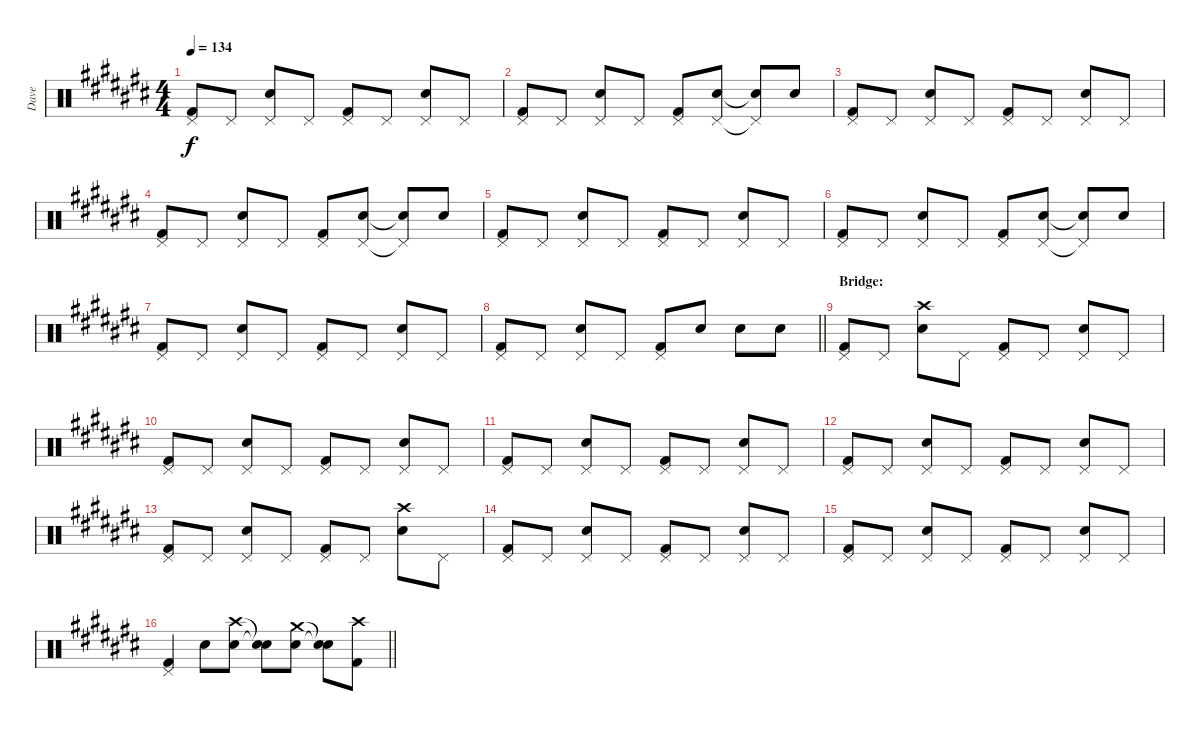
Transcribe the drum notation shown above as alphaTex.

\track ("Dave" "Dave") {instrument percussion}
\staff {score}
\articulation defaults
\ts (4 4)
\tempo 134
\clef neutral
\ks c#
("Pedal Hi-Hat (hit)" "Kick (hit) 2").8{dy f} "Pedal Hi-Hat (hit)".8 ("Pedal Hi-Hat (hit)" "Snare (hit) 2").8 "Pedal Hi-Hat (hit)".8 ("Pedal Hi-Hat (hit)" "Kick (hit) 2").8 "Pedal Hi-Hat (hit)".8 ("Pedal Hi-Hat (hit)" "Snare (hit) 2").8 "Pedal Hi-Hat (hit)".8 |
("Pedal Hi-Hat (hit)" "Kick (hit) 2").8 "Pedal Hi-Hat (hit)".8 ("Pedal Hi-Hat (hit)" "Snare (hit) 2").8 "Pedal Hi-Hat (hit)".8 ("Pedal Hi-Hat (hit)" "Kick (hit) 2").8 ("Pedal Hi-Hat (hit)" "Snare (hit) 2").8 ("Pedal Hi-Hat (hit)"{t} "Snare (hit)"{t}).8 "Snare (hit) 2".8 |
("Pedal Hi-Hat (hit)" "Kick (hit) 2").8 "Pedal Hi-Hat (hit)".8 ("Pedal Hi-Hat (hit)" "Snare (hit) 2").8 "Pedal Hi-Hat (hit)".8 ("Pedal Hi-Hat (hit)" "Kick (hit) 2").8 "Pedal Hi-Hat (hit)".8 ("Pedal Hi-Hat (hit)" "Snare (hit) 2").8 "Pedal Hi-Hat (hit)".8 |
("Pedal Hi-Hat (hit)" "Kick (hit) 2").8 "Pedal Hi-Hat (hit)".8 ("Pedal Hi-Hat (hit)" "Snare (hit) 2").8 "Pedal Hi-Hat (hit)".8 ("Pedal Hi-Hat (hit)" "Kick (hit) 2").8 ("Pedal Hi-Hat (hit)" "Snare (hit) 2").8 ("Pedal Hi-Hat (hit)"{t} "Snare (hit)"{t}).8 "Snare (hit) 2".8 |
("Pedal Hi-Hat (hit)" "Kick (hit) 2").8 "Pedal Hi-Hat (hit)".8 ("Pedal Hi-Hat (hit)" "Snare (hit) 2").8 "Pedal Hi-Hat (hit)".8 ("Pedal Hi-Hat (hit)" "Kick (hit) 2").8 "Pedal Hi-Hat (hit)".8 ("Pedal Hi-Hat (hit)" "Snare (hit) 2").8 "Pedal Hi-Hat (hit)".8 |
("Pedal Hi-Hat (hit)" "Kick (hit) 2").8 "Pedal Hi-Hat (hit)".8 ("Pedal Hi-Hat (hit)" "Snare (hit) 2").8 "Pedal Hi-Hat (hit)".8 ("Pedal Hi-Hat (hit)" "Kick (hit) 2").8 ("Pedal Hi-Hat (hit)" "Snare (hit) 2").8 ("Pedal Hi-Hat (hit)"{t} "Snare (hit)"{t}).8 "Snare (hit) 2".8 |
("Pedal Hi-Hat (hit)" "Kick (hit) 2").8 "Pedal Hi-Hat (hit)".8 ("Pedal Hi-Hat (hit)" "Snare (hit) 2").8 "Pedal Hi-Hat (hit)".8 ("Pedal Hi-Hat (hit)" "Kick (hit) 2").8 "Pedal Hi-Hat (hit)".8 ("Pedal Hi-Hat (hit)" "Snare (hit) 2").8 "Pedal Hi-Hat (hit)".8 |
\barLineRight lightlight
("Pedal Hi-Hat (hit)" "Kick (hit) 2").8 "Pedal Hi-Hat (hit)".8 ("Pedal Hi-Hat (hit)" "Snare (hit) 2").8 "Pedal Hi-Hat (hit)".8 ("Pedal Hi-Hat (hit)" "Kick (hit) 2").8 "Snare (hit) 2".8 "Snare (hit) 2".8 "Snare (hit) 2".8 |
\section ("" "Bridge:")
("Pedal Hi-Hat (hit)" "Kick (hit) 2").8 "Pedal Hi-Hat (hit)".8 ("Crash high (hit)" "Snare (hit) 2").8 "Pedal Hi-Hat (hit)".8 ("Pedal Hi-Hat (hit)" "Kick (hit) 2").8 "Pedal Hi-Hat (hit)".8 ("Pedal Hi-Hat (hit)" "Snare (hit) 2").8 "Pedal Hi-Hat (hit)".8 |
("Pedal Hi-Hat (hit)" "Kick (hit) 2").8 "Pedal Hi-Hat (hit)".8 ("Pedal Hi-Hat (hit)" "Snare (hit) 2").8 "Pedal Hi-Hat (hit)".8 ("Pedal Hi-Hat (hit)" "Kick (hit) 2").8 "Pedal Hi-Hat (hit)".8 ("Pedal Hi-Hat (hit)" "Snare (hit) 2").8 "Pedal Hi-Hat (hit)".8 |
("Pedal Hi-Hat (hit)" "Kick (hit) 2").8 "Pedal Hi-Hat (hit)".8 ("Pedal Hi-Hat (hit)" "Snare (hit) 2").8 "Pedal Hi-Hat (hit)".8 ("Pedal Hi-Hat (hit)" "Kick (hit) 2").8 "Pedal Hi-Hat (hit)".8 ("Pedal Hi-Hat (hit)" "Snare (hit) 2").8 "Pedal Hi-Hat (hit)".8 |
("Pedal Hi-Hat (hit)" "Kick (hit) 2").8 "Pedal Hi-Hat (hit)".8 ("Pedal Hi-Hat (hit)" "Snare (hit) 2").8 "Pedal Hi-Hat (hit)".8 ("Pedal Hi-Hat (hit)" "Kick (hit) 2").8 "Pedal Hi-Hat (hit)".8 ("Pedal Hi-Hat (hit)" "Snare (hit) 2").8 "Pedal Hi-Hat (hit)".8 |
("Pedal Hi-Hat (hit)" "Kick (hit) 2").8 "Pedal Hi-Hat (hit)".8 ("Pedal Hi-Hat (hit)" "Snare (hit) 2").8 "Pedal Hi-Hat (hit)".8 ("Pedal Hi-Hat (hit)" "Kick (hit) 2").8 "Pedal Hi-Hat (hit)".8 ("Crash high (hit)" "Snare (hit) 2").8 "Pedal Hi-Hat (hit)".8 |
("Pedal Hi-Hat (hit)" "Kick (hit) 2").8 "Pedal Hi-Hat (hit)".8 ("Pedal Hi-Hat (hit)" "Snare (hit) 2").8 "Pedal Hi-Hat (hit)".8 ("Pedal Hi-Hat (hit)" "Kick (hit) 2").8 "Pedal Hi-Hat (hit)".8 ("Pedal Hi-Hat (hit)" "Snare (hit) 2").8 "Pedal Hi-Hat (hit)".8 |
("Pedal Hi-Hat (hit)" "Kick (hit) 2").8 "Pedal Hi-Hat (hit)".8 ("Pedal Hi-Hat (hit)" "Snare (hit) 2").8 "Pedal Hi-Hat (hit)".8 ("Pedal Hi-Hat (hit)" "Kick (hit) 2").8 "Pedal Hi-Hat (hit)".8 ("Pedal Hi-Hat (hit)" "Snare (hit) 2").8 "Pedal Hi-Hat (hit)".8 |
\barLineRight lightlight
("Pedal Hi-Hat (hit)" "Kick (hit) 2").4 "Snare (hit) 2".8 ("Crash high (hit)" "Snare (hit) 2").8 ("Snare (hit)"{t} "Snare (hit)"{t}).8 ("Crash medium (hit)" "Snare (hit) 2").8 ("Snare (hit)"{t} "Snare (hit)"{t}).8 ("Crash high (hit)" "Kick (hit) 2").8
